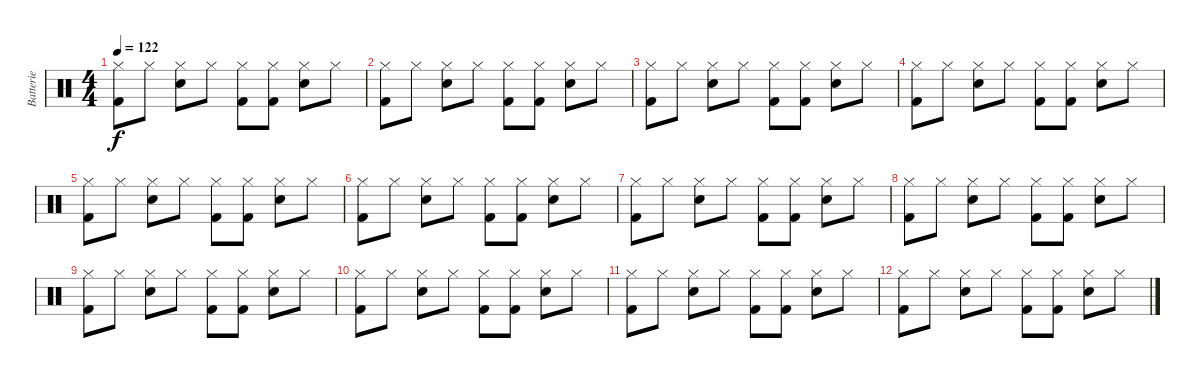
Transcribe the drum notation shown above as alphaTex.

\track ("Batterie" "Batterie") {instrument percussion}
\staff {score}
\articulation defaults
\ts (4 4)
\tempo 122
\clef neutral
\ks c
("Hi-Hat (closed)" "Kick (hit) 2").8{dy f} "Hi-Hat (closed)".8 ("Hi-Hat (closed)" "Snare (hit) 2").8 "Hi-Hat (closed)".8 ("Hi-Hat (closed)" "Kick (hit) 2").8 ("Hi-Hat (closed)" "Kick (hit) 2").8 ("Hi-Hat (closed)" "Snare (hit) 2").8 "Hi-Hat (closed)".8 |
("Hi-Hat (closed)" "Kick (hit) 2").8 "Hi-Hat (closed)".8 ("Hi-Hat (closed)" "Snare (hit) 2").8 "Hi-Hat (closed)".8 ("Hi-Hat (closed)" "Kick (hit) 2").8 ("Hi-Hat (closed)" "Kick (hit) 2").8 ("Hi-Hat (closed)" "Snare (hit) 2").8 "Hi-Hat (closed)".8 |
("Hi-Hat (closed)" "Kick (hit) 2").8 "Hi-Hat (closed)".8 ("Hi-Hat (closed)" "Snare (hit) 2").8 "Hi-Hat (closed)".8 ("Hi-Hat (closed)" "Kick (hit) 2").8 ("Hi-Hat (closed)" "Kick (hit) 2").8 ("Hi-Hat (closed)" "Snare (hit) 2").8 "Hi-Hat (closed)".8 |
("Hi-Hat (closed)" "Kick (hit) 2").8 "Hi-Hat (closed)".8 ("Hi-Hat (closed)" "Snare (hit) 2").8 "Hi-Hat (closed)".8 ("Hi-Hat (closed)" "Kick (hit) 2").8 ("Hi-Hat (closed)" "Kick (hit) 2").8 ("Hi-Hat (closed)" "Snare (hit) 2").8 "Hi-Hat (closed)".8 |
("Hi-Hat (closed)" "Kick (hit) 2").8 "Hi-Hat (closed)".8 ("Hi-Hat (closed)" "Snare (hit) 2").8 "Hi-Hat (closed)".8 ("Hi-Hat (closed)" "Kick (hit) 2").8 ("Hi-Hat (closed)" "Kick (hit) 2").8 ("Hi-Hat (closed)" "Snare (hit) 2").8 "Hi-Hat (closed)".8 |
("Hi-Hat (closed)" "Kick (hit) 2").8 "Hi-Hat (closed)".8 ("Hi-Hat (closed)" "Snare (hit) 2").8 "Hi-Hat (closed)".8 ("Hi-Hat (closed)" "Kick (hit) 2").8 ("Hi-Hat (closed)" "Kick (hit) 2").8 ("Hi-Hat (closed)" "Snare (hit) 2").8 "Hi-Hat (closed)".8 |
("Hi-Hat (closed)" "Kick (hit) 2").8 "Hi-Hat (closed)".8 ("Hi-Hat (closed)" "Snare (hit) 2").8 "Hi-Hat (closed)".8 ("Hi-Hat (closed)" "Kick (hit) 2").8 ("Hi-Hat (closed)" "Kick (hit) 2").8 ("Hi-Hat (closed)" "Snare (hit) 2").8 "Hi-Hat (closed)".8 |
("Hi-Hat (closed)" "Kick (hit) 2").8 "Hi-Hat (closed)".8 ("Hi-Hat (closed)" "Snare (hit) 2").8 "Hi-Hat (closed)".8 ("Hi-Hat (closed)" "Kick (hit) 2").8 ("Hi-Hat (closed)" "Kick (hit) 2").8 ("Hi-Hat (closed)" "Snare (hit) 2").8 "Hi-Hat (closed)".8 |
("Hi-Hat (closed)" "Kick (hit) 2").8 "Hi-Hat (closed)".8 ("Hi-Hat (closed)" "Snare (hit) 2").8 "Hi-Hat (closed)".8 ("Hi-Hat (closed)" "Kick (hit) 2").8 ("Hi-Hat (closed)" "Kick (hit) 2").8 ("Hi-Hat (closed)" "Snare (hit) 2").8 "Hi-Hat (closed)".8 |
("Hi-Hat (closed)" "Kick (hit) 2").8 "Hi-Hat (closed)".8 ("Hi-Hat (closed)" "Snare (hit) 2").8 "Hi-Hat (closed)".8 ("Hi-Hat (closed)" "Kick (hit) 2").8 ("Hi-Hat (closed)" "Kick (hit) 2").8 ("Hi-Hat (closed)" "Snare (hit) 2").8 "Hi-Hat (closed)".8 |
("Hi-Hat (closed)" "Kick (hit) 2").8 "Hi-Hat (closed)".8 ("Hi-Hat (closed)" "Snare (hit) 2").8 "Hi-Hat (closed)".8 ("Hi-Hat (closed)" "Kick (hit) 2").8 ("Hi-Hat (closed)" "Kick (hit) 2").8 ("Hi-Hat (closed)" "Snare (hit) 2").8 "Hi-Hat (closed)".8 |
("Hi-Hat (closed)" "Kick (hit) 2").8 "Hi-Hat (closed)".8 ("Hi-Hat (closed)" "Snare (hit) 2").8 "Hi-Hat (closed)".8 ("Hi-Hat (closed)" "Kick (hit) 2").8 ("Hi-Hat (closed)" "Kick (hit) 2").8 ("Hi-Hat (closed)" "Snare (hit) 2").8 "Hi-Hat (closed)".8
